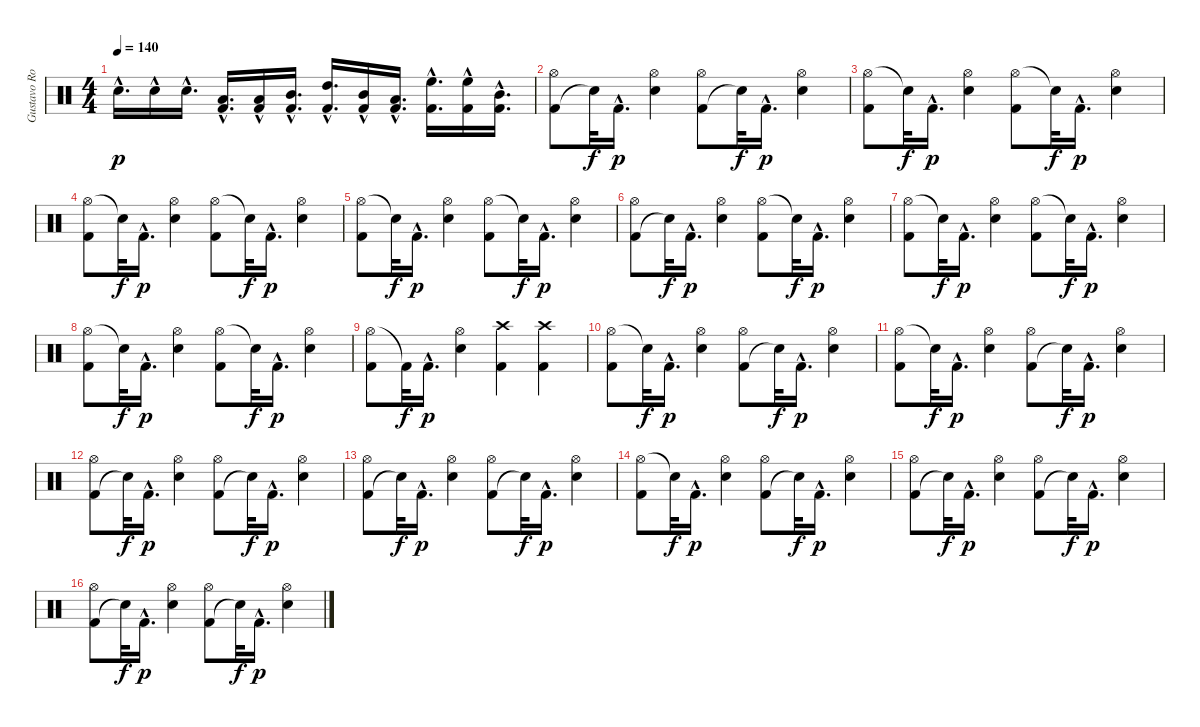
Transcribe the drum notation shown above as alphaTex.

\track ("Gustavo Rowek" "Gustavo Ro") {instrument percussion}
\staff {score}
\articulation defaults
\ts (4 4)
\tempo 140
\clef neutral
\ks c "Snare (hit) 2"{hac}.16{d dy p} "Snare (hit) 2"{hac}.16 "Snare (hit) 2"{hac}.16{d}
("Low Tom (hit)"{hac} "Kick (hit) 2"{hac}).16{d} ("Low Tom (hit)"{hac} "Kick (hit) 2"{hac}).16 ("Kick (hit) 2"{hac} "Mid Tom (hit)"{hac}).16{d} ("Kick (hit) 2"{hac} "High Tom (hit)"{hac}).16{d} ("Kick (hit) 2"{hac} "Mid Tom (hit)"{hac}).16 ("Low Tom (hit)"{hac} "Kick (hit) 2"{hac}).16{d} ("High Floor Tom (hit)"{hac} "Kick (hit) 2"{hac}).16{d} ("Kick (hit) 2"{hac} "High Floor Tom (hit)"{hac}).16 ("Kick (hit) 2"{hac} "Mid Tom (hit)"{hac}).16{d} |
("Kick (hit) 2" "Hi-Hat (open)").8 "Snare (hit)"{t}.32{dy f} "Kick (hit) 2"{hac}.16{d dy p} ("Snare (hit) 2" "Hi-Hat (open)").4 ("Kick (hit) 2" "Hi-Hat (open)").8 "Snare (hit)"{t}.32{dy f} "Kick (hit) 2"{hac}.16{d dy p} ("Snare (hit) 2" "Hi-Hat (open)").4 |
("Hi-Hat (open)" "Kick (hit) 2").8 "Snare (hit)"{t}.32{dy f} "Kick (hit) 2"{hac}.16{d dy p} ("Hi-Hat (open)" "Snare (hit) 2").4 ("Hi-Hat (open)" "Kick (hit) 2").8 "Snare (hit)"{t}.32{dy f} "Kick (hit) 2"{hac}.16{d dy p} ("Hi-Hat (open)" "Snare (hit) 2").4 |
("Hi-Hat (open)" "Kick (hit) 2").8 "Snare (hit)"{t}.32{dy f} "Kick (hit) 2"{hac}.16{d dy p} ("Hi-Hat (open)" "Snare (hit) 2").4 ("Hi-Hat (open)" "Kick (hit) 2").8 "Snare (hit)"{t}.32{dy f} "Kick (hit) 2"{hac}.16{d dy p} ("Snare (hit) 2" "Hi-Hat (open)").4 |
("Hi-Hat (open)" "Kick (hit) 2").8 "Snare (hit)"{t}.32{dy f} "Kick (hit) 2"{hac}.16{d dy p} ("Snare (hit) 2" "Hi-Hat (open)").4 ("Hi-Hat (open)" "Kick (hit) 2").8 "Snare (hit)"{t}.32{dy f} "Kick (hit) 2"{hac}.16{d dy p} ("Snare (hit) 2" "Hi-Hat (open)").4 |
("Kick (hit) 2" "Hi-Hat (open)").8 "Snare (hit)"{t}.32{dy f} "Kick (hit) 2"{hac}.16{d dy p} ("Snare (hit) 2" "Hi-Hat (open)").4 ("Hi-Hat (open)" "Kick (hit) 2").8 "Snare (hit)"{t}.32{dy f} "Kick (hit) 2"{hac}.16{d dy p} ("Snare (hit) 2" "Hi-Hat (open)").4 |
("Hi-Hat (open)" "Kick (hit) 2").8 "Snare (hit)"{t}.32{dy f} "Kick (hit) 2"{hac}.16{d dy p} ("Snare (hit) 2" "Hi-Hat (open)").4 ("Hi-Hat (open)" "Kick (hit) 2").8 "Snare (hit)"{t}.32{dy f} "Kick (hit) 2"{hac}.16{d dy p} ("Snare (hit) 2" "Hi-Hat (open)").4 |
("Hi-Hat (open)" "Kick (hit) 2").8 "Snare (hit)"{t}.32{dy f} "Kick (hit) 2"{hac}.16{d dy p} ("Snare (hit) 2" "Hi-Hat (open)").4 ("Hi-Hat (open)" "Kick (hit) 2").8 "Snare (hit)"{t}.32{dy f} "Kick (hit) 2"{hac}.16{d dy p} ("Snare (hit) 2" "Hi-Hat (open)").4 |
("Hi-Hat (open)" "Kick (hit) 2").8 "Kick (hit) 2"{t}.32{dy f} "Kick (hit) 2"{hac}.16{d dy p} ("Hi-Hat (open)" "Snare (hit) 2").4 ("Kick (hit) 2" "Crash high (hit)").4 ("Kick (hit) 2" "Crash high (hit)").4 |
("Hi-Hat (open)" "Kick (hit) 2").8 "Snare (hit)"{t}.32{dy f} "Kick (hit) 2"{hac}.16{d dy p} ("Hi-Hat (open)" "Snare (hit) 2").4 ("Kick (hit) 2" "Hi-Hat (open)").8 "Snare (hit)"{t}.32{dy f} "Kick (hit) 2"{hac}.16{d dy p} ("Hi-Hat (open)" "Snare (hit) 2").4 |
("Hi-Hat (open)" "Kick (hit) 2").8 "Snare (hit)"{t}.32{dy f} "Kick (hit) 2"{hac}.16{d dy p} ("Snare (hit) 2" "Hi-Hat (open)").4 ("Kick (hit) 2" "Hi-Hat (open)").8 "Snare (hit)"{t}.32{dy f} "Kick (hit) 2"{hac}.16{d dy p} ("Snare (hit) 2" "Hi-Hat (open)").4 |
("Kick (hit) 2" "Hi-Hat (open)").8 "Snare (hit)"{t}.32{dy f} "Kick (hit) 2"{hac}.16{d dy p} ("Snare (hit) 2" "Hi-Hat (open)").4 ("Kick (hit) 2" "Hi-Hat (open)").8 "Snare (hit)"{t}.32{dy f} "Kick (hit) 2"{hac}.16{d dy p} ("Snare (hit) 2" "Hi-Hat (open)").4 |
("Kick (hit) 2" "Hi-Hat (open)").8 "Snare (hit)"{t}.32{dy f} "Kick (hit) 2"{hac}.16{d dy p} ("Snare (hit) 2" "Hi-Hat (open)").4 ("Kick (hit) 2" "Hi-Hat (open)").8 "Snare (hit)"{t}.32{dy f} "Kick (hit) 2"{hac}.16{d dy p} ("Snare (hit) 2" "Hi-Hat (open)").4 |
("Hi-Hat (open)" "Kick (hit) 2").8 "Snare (hit)"{t}.32{dy f} "Kick (hit) 2"{hac}.16{d dy p} ("Snare (hit) 2" "Hi-Hat (open)").4 ("Kick (hit) 2" "Hi-Hat (open)").8 "Snare (hit)"{t}.32{dy f} "Kick (hit) 2"{hac}.16{d dy p} ("Snare (hit) 2" "Hi-Hat (open)").4 |
("Kick (hit) 2" "Hi-Hat (open)").8 "Snare (hit)"{t}.32{dy f} "Kick (hit) 2"{hac}.16{d dy p} ("Snare (hit) 2" "Hi-Hat (open)").4 ("Kick (hit) 2" "Hi-Hat (open)").8 "Snare (hit)"{t}.32{dy f} "Kick (hit) 2"{hac}.16{d dy p} ("Snare (hit) 2" "Hi-Hat (open)").4 |
("Kick (hit) 2" "Hi-Hat (open)").8 "Snare (hit)"{t}.32{dy f} "Kick (hit) 2"{hac}.16{d dy p} ("Snare (hit) 2" "Hi-Hat (open)").4 ("Kick (hit) 2" "Hi-Hat (open)").8 "Snare (hit)"{t}.32{dy f} "Kick (hit) 2"{hac}.16{d dy p} ("Snare (hit) 2" "Hi-Hat (open)").4
